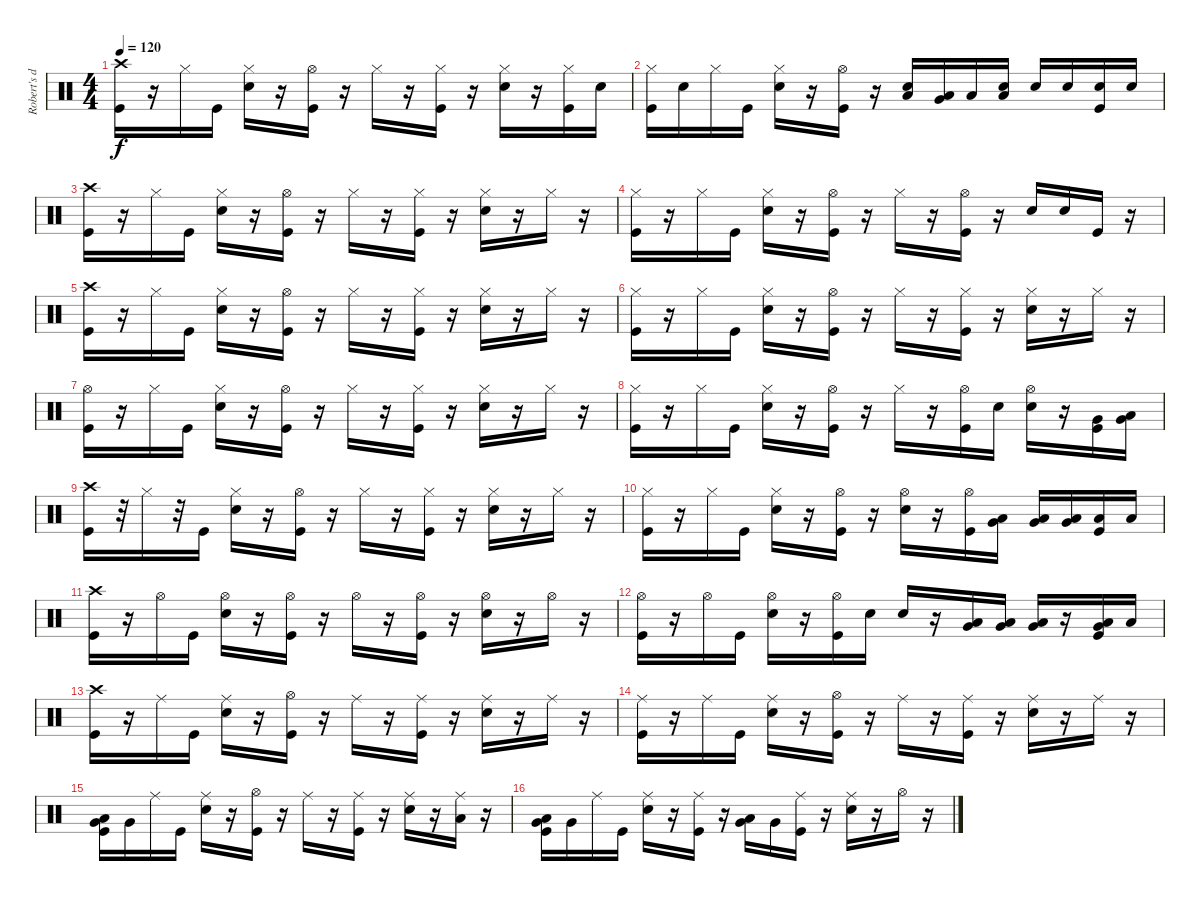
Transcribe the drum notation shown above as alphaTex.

\track ("Robert's drums" "Robert's d") {instrument percussion}
\staff {score}
\articulation defaults
\ts (4 4)
\tempo 120
\clef neutral
\ks c
("Crash high (hit)" "Kick (hit)").16{dy f} r.16 "Hi-Hat (closed)".16 "Kick (hit)".16 ("Electric Snare (hit)" "Hi-Hat (closed)").16 r.16 ("Hi-Hat (open)" "Kick (hit)").16 r.16 "Hi-Hat (closed)".16 r.16 ("Kick (hit)" "Hi-Hat (closed)").16 r.16 ("Electric Snare (hit)" "Hi-Hat (closed)").16 r.16 ("Kick (hit)" "Hi-Hat (closed)").16 "Electric Snare (hit)".16 |
("Hi-Hat (closed)" "Kick (hit)").16 "Electric Snare (hit)".16 "Hi-Hat (closed)".16 "Kick (hit)".16 ("Hi-Hat (closed)" "Electric Snare (hit)").16 r.16 ("Kick (hit)" "Hi-Hat (open)").16 r.16 ("Low Tom (hit)" "Electric Snare (hit)").16 ("Low Floor Tom (hit)" "Very Low Tom (hit)").16 "Low Floor Tom (hit)".16 ("Low Floor Tom (hit)" "Electric Snare (hit)").16 "Electric Snare (hit)".16 "Electric Snare (hit)".16 ("Kick (hit)" "Electric Snare (hit)").16 "Electric Snare (hit)".16 |
("Crash high (hit)" "Kick (hit)").16 r.16 "Hi-Hat (closed)".16 "Kick (hit)".16 ("Electric Snare (hit)" "Hi-Hat (closed)").16 r.16 ("Hi-Hat (open)" "Kick (hit)").16 r.16 "Hi-Hat (closed)".16 r.16 ("Hi-Hat (closed)" "Kick (hit)").16 r.16 ("Hi-Hat (closed)" "Electric Snare (hit)").16 r.16 "Hi-Hat (closed)".16 r.16 |
("Hi-Hat (closed)" "Kick (hit)").16 r.16 "Hi-Hat (closed)".16 "Kick (hit)".16 ("Hi-Hat (closed)" "Electric Snare (hit)").16 r.16 ("Hi-Hat (open)" "Kick (hit)").16 r.16 "Hi-Hat (closed)".16 r.16 ("Hi-Hat (open)" "Kick (hit)").16 r.16 "Electric Snare (hit)".16 "Electric Snare (hit)".16 "Kick (hit)".16 r.16 |
("Crash high (hit)" "Kick (hit)").16 r.16 "Hi-Hat (closed)".16 "Kick (hit)".16 ("Hi-Hat (closed)" "Electric Snare (hit)").16 r.16 ("Hi-Hat (open)" "Kick (hit)").16 r.16 "Hi-Hat (closed)".16 r.16 ("Kick (hit)" "Hi-Hat (closed)").16 r.16 ("Hi-Hat (closed)" "Electric Snare (hit)").16 r.16 "Hi-Hat (closed)".16 r.16 |
("Hi-Hat (closed)" "Kick (hit)").16 r.16 "Hi-Hat (closed)".16 "Kick (hit)".16 ("Hi-Hat (closed)" "Electric Snare (hit)").16 r.16 ("Kick (hit)" "Hi-Hat (open)").16 r.16 "Hi-Hat (closed)".16 r.16 ("Kick (hit)" "Hi-Hat (closed)").16 r.16 ("Hi-Hat (closed)" "Electric Snare (hit)").16 r.16 "Hi-Hat (closed)".16 r.16 |
("Hi-Hat (open)" "Kick (hit)").16 r.16 "Hi-Hat (closed)".16 "Kick (hit)".16 ("Electric Snare (hit)" "Hi-Hat (closed)").16 r.16 ("Kick (hit)" "Hi-Hat (open)").16 r.16 "Hi-Hat (closed)".16 r.16 ("Hi-Hat (closed)" "Kick (hit)").16 r.16 ("Electric Snare (hit)" "Hi-Hat (closed)").16 r.16 "Hi-Hat (closed)".16 r.16 |
("Hi-Hat (closed)" "Kick (hit)").16 r.16 "Hi-Hat (closed)".16 "Kick (hit)".16 ("Hi-Hat (closed)" "Electric Snare (hit)").16 r.16 ("Kick (hit)" "Hi-Hat (open)").16 r.16 "Hi-Hat (closed)".16 r.16 ("Hi-Hat (open)" "Kick (hit)").16 "Electric Snare (hit)".16 ("Hi-Hat (open)" "Electric Snare (hit)").16 r.16 ("Very Low Tom (hit)" "Kick (hit)").16 ("Low Floor Tom (hit)" "Very Low Tom (hit)").16 |
("Crash high (hit)" "Kick (hit)").16 r.32 "Hi-Hat (closed)".16 r.32 "Kick (hit)".16 ("Hi-Hat (closed)" "Electric Snare (hit)").16 r.16 ("Hi-Hat (open)" "Kick (hit)").16 r.16 "Hi-Hat (closed)".16 r.16 ("Kick (hit)" "Hi-Hat (closed)").16 r.16 ("Hi-Hat (closed)" "Electric Snare (hit)").16 r.16 "Hi-Hat (closed)".16 r.16 |
("Hi-Hat (closed)" "Kick (hit)").16 r.16 "Hi-Hat (closed)".16 "Kick (hit)".16 ("Electric Snare (hit)" "Hi-Hat (closed)").16 r.16 ("Kick (hit)" "Hi-Hat (open)").16 r.16 ("Hi-Hat (open)" "Electric Snare (hit)").16 r.16 ("Hi-Hat (open)" "Kick (hit)").16 ("Low Tom (hit)" "Very Low Tom (hit)").16 ("Very Low Tom (hit)" "Low Floor Tom (hit)").16 ("Low Floor Tom (hit)" "Very Low Tom (hit)").16 ("Kick (hit)" "Low Floor Tom (hit)").16 "Low Floor Tom (hit)".16 |
("Crash high (hit)" "Kick (hit)").16 r.16 "Hi-Hat (open)".16 "Kick (hit)".16 ("Hi-Hat (open)" "Electric Snare (hit)").16 r.16 ("Hi-Hat (open)" "Kick (hit)").16 r.16 "Hi-Hat (open)".16 r.16 ("Hi-Hat (open)" "Kick (hit)").16 r.16 ("Hi-Hat (open)" "Electric Snare (hit)").16 r.16 "Hi-Hat (open)".16 r.16 |
("Hi-Hat (open)" "Kick (hit)").16 r.16 "Hi-Hat (open)".16 "Kick (hit)".16 ("Hi-Hat (open)" "Electric Snare (hit)").16 r.16 ("Kick (hit)" "Hi-Hat (open)").16 "Electric Snare (hit)".16 "Electric Snare (hit)".16 r.16 ("Very Low Tom (hit)" "Low Floor Tom (hit)").16 ("Very Low Tom (hit)" "Low Tom (hit)").16 ("Very Low Tom (hit)" "Low Floor Tom (hit)").16 r.16 ("Very Low Tom (hit)" "Low Floor Tom (hit)" "Kick (hit)").16 "Low Floor Tom (hit)".16 |
("Crash high (hit)" "Kick (hit)").16 r.16 "Ride (middle)".16 "Kick (hit)".16 ("Ride (middle)" "Electric Snare (hit)").16 r.16 ("Kick (hit)" "Hi-Hat (open)").16 r.16 "Ride (middle)".16 r.16 ("Kick (hit)" "Ride (middle)").16 r.16 ("Electric Snare (hit)" "Ride (middle)").16 r.16 "Ride (middle)".16 r.16 |
("Ride (middle)" "Kick (hit)").16 r.16 "Ride (middle)".16 "Kick (hit)".16 ("Ride (middle)" "Electric Snare (hit)").16 r.16 ("Kick (hit)" "Hi-Hat (open)").16 r.16 "Ride (middle)".16 r.16 ("Ride (middle)" "Kick (hit)").16 r.16 ("Electric Snare (hit)" "Ride (middle)").16 r.16 "Ride (middle)".16 r.16 |
("Very Low Tom (hit)" "Low Tom (hit)" "Kick (hit)").16 "Very Low Tom (hit)".16 "Ride (middle)".16 "Kick (hit)".16 ("Ride (middle)" "Electric Snare (hit)").16 r.16 ("Hi-Hat (open)" "Kick (hit)").16 r.16 "Ride (middle)".16 r.16 ("Ride (middle)" "Kick (hit)").16 r.16 ("Electric Snare (hit)" "Ride (middle)").16 r.16 ("Low Floor Tom (hit)" "Ride (middle)").16 r.16 |
("Very Low Tom (hit)" "Low Tom (hit)" "Kick (hit)").16 "Very Low Tom (hit)".16 "Ride (middle)".16 "Kick (hit)".16 ("Electric Snare (hit)" "Ride (middle)").16 r.16 ("Ride (middle)" "Kick (hit)").16 r.16 ("Very Low Tom (hit)" "Low Tom (hit)").16 "Very Low Tom (hit)".16 ("Kick (hit)" "Ride (middle)").16 r.16 ("Ride (middle)" "Electric Snare (hit)").16 r.16 "Hi-Hat (open)".16 r.16
